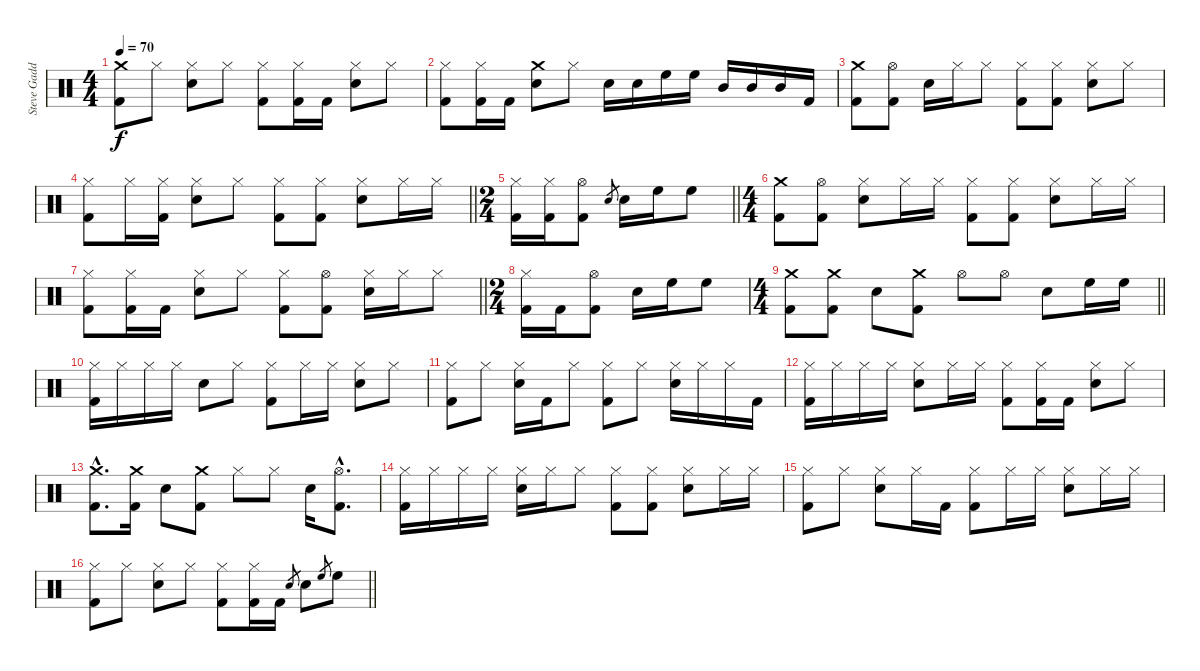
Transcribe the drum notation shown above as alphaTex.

\track ("Steve Gadd Drums" "Steve Gadd") {instrument percussion}
\staff {score}
\articulation defaults
\ts (4 4)
\tempo 70
\clef neutral
\ks c
("Crash medium (hit)" "Kick (hit) 2").8{dy f} "Hi-Hat (closed)".8 ("Hi-Hat (closed)" "Snare (hit) 2").8 "Hi-Hat (closed)".8 ("Hi-Hat (closed)" "Kick (hit) 2").8 ("Hi-Hat (closed)" "Kick (hit) 2").16 "Kick (hit) 2".16 ("Hi-Hat (closed)" "Snare (hit) 2").8 "Hi-Hat (closed)".8 |
("Hi-Hat (closed)" "Kick (hit) 2").8 ("Hi-Hat (closed)" "Kick (hit) 2").16 "Kick (hit) 2".16 ("Crash medium (hit)" "Snare (hit) 2").8 "Hi-Hat (closed)".8 "Snare (hit) 2".16 "Snare (hit) 2".16 "High Floor Tom (hit)".16 "High Floor Tom (hit)".16 "Mid Tom (hit)".16 "Mid Tom (hit)".16 "Mid Tom (hit)".16 "Kick (hit) 2".16 |
("Crash medium (hit)" "Kick (hit) 2").8 ("Hi-Hat (open)" "Kick (hit) 2").8 "Snare (hit) 2".16 "Hi-Hat (closed)".16 "Hi-Hat (closed)".8 ("Hi-Hat (closed)" "Kick (hit) 2").8 ("Hi-Hat (closed)" "Kick (hit) 2").8 ("Hi-Hat (closed)" "Snare (hit) 2").8 "Hi-Hat (closed)".8 |
\barLineRight lightlight
("Hi-Hat (closed)" "Kick (hit) 2").8 "Hi-Hat (closed)".16 ("Hi-Hat (closed)" "Kick (hit) 2").16 ("Hi-Hat (closed)" "Snare (hit) 2").8 "Hi-Hat (closed)".8 ("Hi-Hat (closed)" "Kick (hit) 2").8 ("Hi-Hat (closed)" "Kick (hit) 2").8 ("Hi-Hat (closed)" "Snare (hit) 2").8 "Hi-Hat (closed)".16 "Hi-Hat (closed)".16 |
\ts (2 4)
\barLineRight lightlight
("Hi-Hat (closed)" "Kick (hit) 2").16 ("Hi-Hat (closed)" "Kick (hit) 2").16 ("Hi-Hat (open)" "Kick (hit) 2").8 "Snare (hit) 2".8{gr} "Snare (hit) 2".16 "High Floor Tom (hit)".16 "High Floor Tom (hit)".8 |
\ts (4 4)
("Crash medium (hit)" "Kick (hit) 2").8 ("Hi-Hat (open)" "Kick (hit) 2").8 ("Hi-Hat (closed)" "Snare (hit) 2").8 "Hi-Hat (closed)".16 "Hi-Hat (closed)".16 ("Hi-Hat (closed)" "Kick (hit) 2").8 ("Hi-Hat (closed)" "Kick (hit) 2").8 ("Hi-Hat (closed)" "Snare (hit) 2").8 "Hi-Hat (closed)".16 "Hi-Hat (closed)".16 |
\barLineRight lightlight
("Hi-Hat (closed)" "Kick (hit) 2").8 ("Hi-Hat (closed)" "Kick (hit) 2").16 "Kick (hit) 2".16 ("Hi-Hat (closed)" "Snare (hit) 2").8 "Hi-Hat (closed)".8 ("Hi-Hat (closed)" "Kick (hit) 2").8 ("Hi-Hat (open)" "Kick (hit) 2").8 ("Hi-Hat (closed)" "Snare (hit) 2").16 "Hi-Hat (closed)".16 "Hi-Hat (closed)".8 |
\ts (2 4)
("Hi-Hat (closed)" "Kick (hit) 2").16 "Kick (hit) 2".16 ("Hi-Hat (open)" "Kick (hit) 2").8 "Snare (hit) 2".16 "High Floor Tom (hit)".16 "High Floor Tom (hit)".8 |
\ts (4 4)
\barLineRight lightlight
("Crash medium (hit)" "Kick (hit) 2").8 ("Crash medium (hit)" "Kick (hit) 2").8 "Snare (hit) 2".8 ("Crash medium (hit)" "Kick (hit) 2").8 "Hi-Hat (open)".8 "Hi-Hat (open)".8 "Snare (hit) 2".8 "High Floor Tom (hit)".16 "High Floor Tom (hit)".16 |
("Hi-Hat (closed)" "Kick (hit) 2").16 "Hi-Hat (closed)".16 "Hi-Hat (closed)".16 "Hi-Hat (closed)".16 "Snare (hit) 2".8 "Hi-Hat (closed)".8 ("Hi-Hat (closed)" "Kick (hit) 2").8 "Hi-Hat (closed)".16 "Hi-Hat (closed)".16 ("Hi-Hat (closed)" "Snare (hit) 2").8 "Hi-Hat (closed)".8 |
("Hi-Hat (closed)" "Kick (hit) 2").8 "Hi-Hat (closed)".8 ("Hi-Hat (closed)" "Snare (hit) 2").16 "Kick (hit) 2".16 "Hi-Hat (closed)".8 ("Hi-Hat (closed)" "Kick (hit) 2").8 "Hi-Hat (closed)".8 ("Hi-Hat (closed)" "Snare (hit) 2").16 "Hi-Hat (closed)".16 "Hi-Hat (closed)".16 "Kick (hit) 2".16 |
("Hi-Hat (closed)" "Kick (hit) 2").16 "Hi-Hat (closed)".16 "Hi-Hat (closed)".16 "Hi-Hat (closed)".16 ("Hi-Hat (closed)" "Snare (hit) 2").8 "Hi-Hat (closed)".16 "Hi-Hat (closed)".16 ("Hi-Hat (closed)" "Kick (hit) 2").8 ("Hi-Hat (closed)" "Kick (hit) 2").16 "Kick (hit) 2".16 ("Hi-Hat (closed)" "Snare (hit) 2").8 "Hi-Hat (closed)".8 |
("Crash medium (hit)"{hac} "Kick (hit) 2"{hac}).8{d} ("Crash medium (hit)" "Kick (hit) 2").16 "Snare (hit) 2".8 ("Crash medium (hit)" "Kick (hit) 2").8 "Hi-Hat (closed)".8 "Hi-Hat (closed)".8 "Snare (hit) 2".16 ("Hi-Hat (open)"{hac} "Kick (hit) 2"{hac}).8{d} |
("Hi-Hat (closed)" "Kick (hit) 2").16 "Hi-Hat (closed)".16 "Hi-Hat (closed)".16 "Hi-Hat (closed)".16 ("Hi-Hat (closed)" "Snare (hit) 2").16 "Hi-Hat (closed)".16 "Hi-Hat (closed)".8 ("Hi-Hat (closed)" "Kick (hit) 2").8 ("Hi-Hat (closed)" "Kick (hit) 2").8 ("Hi-Hat (closed)" "Snare (hit) 2").8 "Hi-Hat (closed)".16 "Hi-Hat (closed)".16 |
("Hi-Hat (closed)" "Kick (hit) 2").8 "Hi-Hat (closed)".8 ("Hi-Hat (closed)" "Snare (hit) 2").8 "Hi-Hat (closed)".16 "Kick (hit) 2".16 ("Hi-Hat (closed)" "Kick (hit) 2").8 "Hi-Hat (closed)".16 "Hi-Hat (closed)".16 ("Hi-Hat (closed)" "Snare (hit) 2").8 "Hi-Hat (closed)".16 "Hi-Hat (closed)".16 |
\barLineRight lightlight
("Hi-Hat (closed)" "Kick (hit) 2").8 "Hi-Hat (closed)".8 ("Hi-Hat (closed)" "Snare (hit) 2").8 "Hi-Hat (closed)".8 ("Hi-Hat (closed)" "Kick (hit) 2").8 ("Hi-Hat (closed)" "Kick (hit) 2").16 "Kick (hit) 2".16 "Snare (hit) 2".8{gr} "Snare (hit) 2".8 "High Floor Tom (hit)".8{gr} "High Floor Tom (hit)".8
